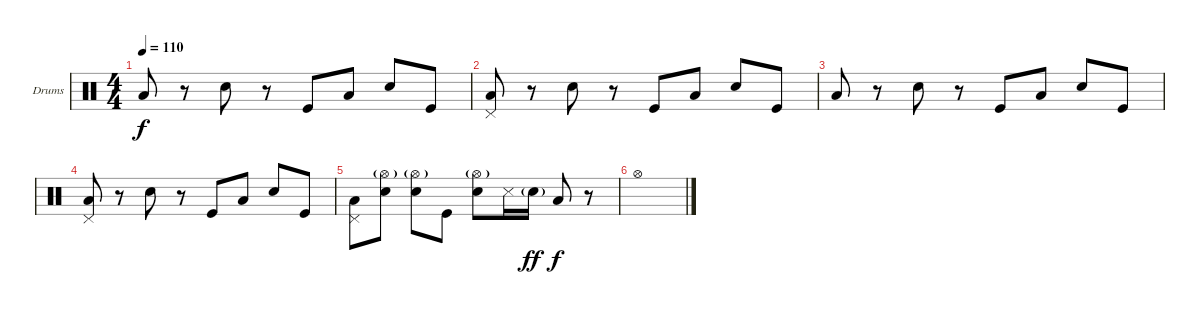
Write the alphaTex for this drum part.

\bracketExtendMode groupsimilarinstruments
\firstSystemTrackNameOrientation horizontal
\otherSystemsTrackNameOrientation horizontal
\track ("Drumkit" "Drums") {instrument percussion}
\staff {score}
\articulation defaults
\ts (4 4)
\tempo 110
\clef neutral
\ks c "Low Tom (hit)".8{dy f}
r.8 "Snare (hit) 2".8 r.8 "Kick (hit)".8 "Low Tom (hit)".8 "Snare (hit) 2".8 "Kick (hit)".8 |
("Pedal Hi-Hat (hit)" "Low Tom (hit)").8 r.8 "Snare (hit) 2".8 r.8 "Kick (hit)".8 "Low Tom (hit)".8 "Snare (hit) 2".8 "Kick (hit)".8 |
"Low Tom (hit)".8 r.8 "Snare (hit) 2".8 r.8 "Kick (hit)".8 "Low Tom (hit)".8 "Snare (hit) 2".8 "Kick (hit)".8 |
("Pedal Hi-Hat (hit)" "Low Tom (hit)").8 r.8 "Snare (hit) 2".8 r.8 "Kick (hit)".8 "Low Tom (hit)".8 "Snare (hit) 2".8 "Kick (hit)".8 |
("Pedal Hi-Hat (hit)" "Low Tom (hit)").8 ("Hi-Hat (open)"{g} "Snare (hit) 2").8 ("Hi-Hat (open)"{g} "Snare (hit) 2").8 "Kick (hit)".8 ("Hi-Hat (open)"{g} "Snare (hit) 2").8 "Snare (side stick) 3".16 "Snare (hit) 2"{g}.16{dy ff} "Low Tom (hit)".8{dy f} r.8 |
"Hi-Hat (open)".1
